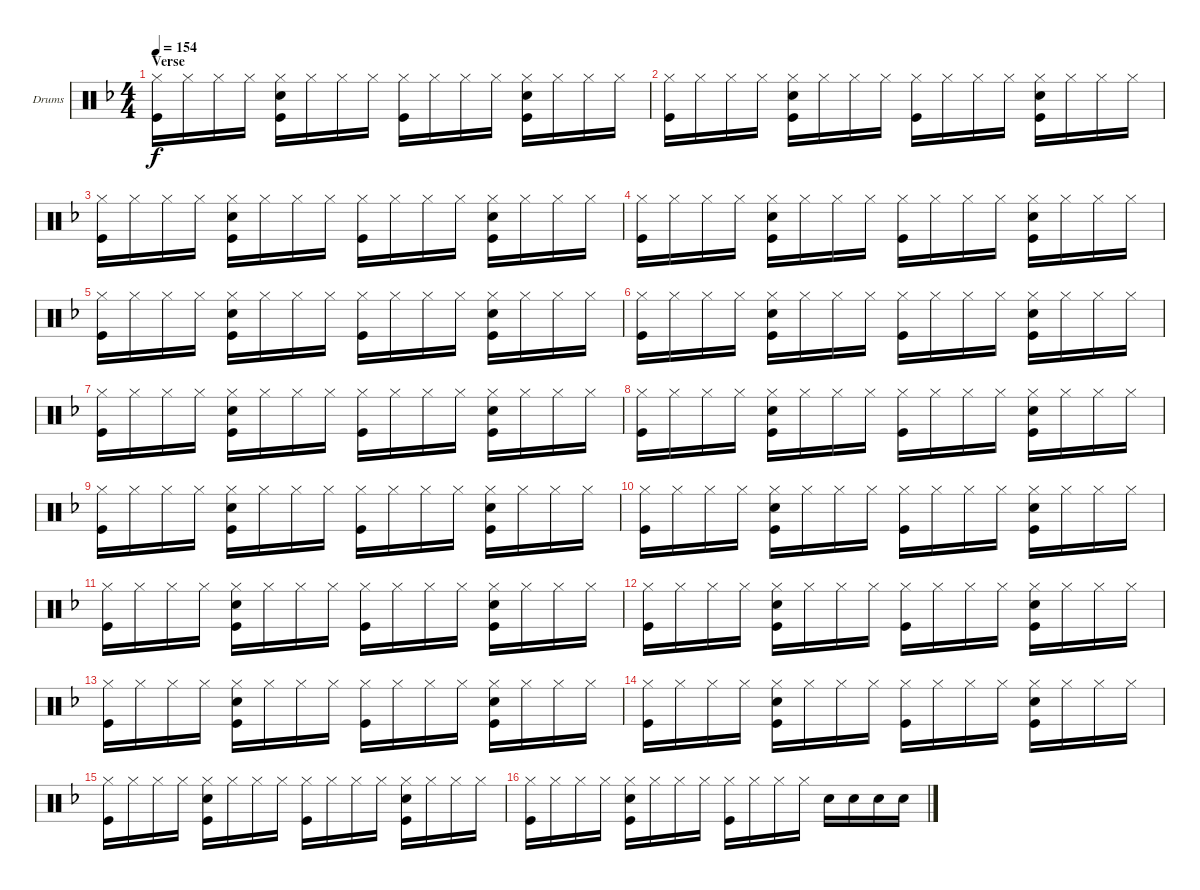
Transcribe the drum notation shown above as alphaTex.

\defaultSystemsLayout 4
\bracketExtendMode groupsimilarinstruments
\firstSystemTrackNameOrientation horizontal
\otherSystemsTrackNameOrientation horizontal
\track ("Drumkit" "Drums") {instrument percussion}
\staff {score}
\articulation defaults
\ts (4 4)
\section ("" "Verse")
\tempo 154
\clef neutral
\ks f
("Hi-Hat (closed)" "Kick (hit)").16{dy f} "Hi-Hat (closed)".16 "Hi-Hat (closed)".16 "Hi-Hat (closed)".16 ("Hi-Hat (closed)" "Snare (hit) 2" "Kick (hit)").16 "Hi-Hat (closed)".16 "Hi-Hat (closed)".16 "Hi-Hat (closed)".16 ("Hi-Hat (closed)" "Kick (hit)").16 "Hi-Hat (closed)".16 "Hi-Hat (closed)".16 "Hi-Hat (closed)".16 ("Hi-Hat (closed)" "Kick (hit)" "Snare (hit) 2").16 "Hi-Hat (closed)".16 "Hi-Hat (closed)".16 "Hi-Hat (closed)".16 |
("Hi-Hat (closed)" "Kick (hit)").16 "Hi-Hat (closed)".16 "Hi-Hat (closed)".16 "Hi-Hat (closed)".16 ("Hi-Hat (closed)" "Snare (hit) 2" "Kick (hit)").16 "Hi-Hat (closed)".16 "Hi-Hat (closed)".16 "Hi-Hat (closed)".16 ("Hi-Hat (closed)" "Kick (hit)").16 "Hi-Hat (closed)".16 "Hi-Hat (closed)".16 "Hi-Hat (closed)".16 ("Hi-Hat (closed)" "Kick (hit)" "Snare (hit) 2").16 "Hi-Hat (closed)".16 "Hi-Hat (closed)".16 "Hi-Hat (closed)".16 |
("Hi-Hat (closed)" "Kick (hit)").16 "Hi-Hat (closed)".16 "Hi-Hat (closed)".16 "Hi-Hat (closed)".16 ("Hi-Hat (closed)" "Snare (hit) 2" "Kick (hit)").16 "Hi-Hat (closed)".16 "Hi-Hat (closed)".16 "Hi-Hat (closed)".16 ("Hi-Hat (closed)" "Kick (hit)").16 "Hi-Hat (closed)".16 "Hi-Hat (closed)".16 "Hi-Hat (closed)".16 ("Hi-Hat (closed)" "Kick (hit)" "Snare (hit) 2").16 "Hi-Hat (closed)".16 "Hi-Hat (closed)".16 "Hi-Hat (closed)".16 |
("Hi-Hat (closed)" "Kick (hit)").16 "Hi-Hat (closed)".16 "Hi-Hat (closed)".16 "Hi-Hat (closed)".16 ("Hi-Hat (closed)" "Snare (hit) 2" "Kick (hit)").16 "Hi-Hat (closed)".16 "Hi-Hat (closed)".16 "Hi-Hat (closed)".16 ("Hi-Hat (closed)" "Kick (hit)").16 "Hi-Hat (closed)".16 "Hi-Hat (closed)".16 "Hi-Hat (closed)".16 ("Hi-Hat (closed)" "Kick (hit)" "Snare (hit) 2").16 "Hi-Hat (closed)".16 "Hi-Hat (closed)".16 "Hi-Hat (closed)".16 |
("Hi-Hat (closed)" "Kick (hit)").16 "Hi-Hat (closed)".16 "Hi-Hat (closed)".16 "Hi-Hat (closed)".16 ("Hi-Hat (closed)" "Snare (hit) 2" "Kick (hit)").16 "Hi-Hat (closed)".16 "Hi-Hat (closed)".16 "Hi-Hat (closed)".16 ("Hi-Hat (closed)" "Kick (hit)").16 "Hi-Hat (closed)".16 "Hi-Hat (closed)".16 "Hi-Hat (closed)".16 ("Hi-Hat (closed)" "Kick (hit)" "Snare (hit) 2").16 "Hi-Hat (closed)".16 "Hi-Hat (closed)".16 "Hi-Hat (closed)".16 |
("Hi-Hat (closed)" "Kick (hit)").16 "Hi-Hat (closed)".16 "Hi-Hat (closed)".16 "Hi-Hat (closed)".16 ("Hi-Hat (closed)" "Snare (hit) 2" "Kick (hit)").16 "Hi-Hat (closed)".16 "Hi-Hat (closed)".16 "Hi-Hat (closed)".16 ("Hi-Hat (closed)" "Kick (hit)").16 "Hi-Hat (closed)".16 "Hi-Hat (closed)".16 "Hi-Hat (closed)".16 ("Hi-Hat (closed)" "Kick (hit)" "Snare (hit) 2").16 "Hi-Hat (closed)".16 "Hi-Hat (closed)".16 "Hi-Hat (closed)".16 |
("Hi-Hat (closed)" "Kick (hit)").16 "Hi-Hat (closed)".16 "Hi-Hat (closed)".16 "Hi-Hat (closed)".16 ("Hi-Hat (closed)" "Snare (hit) 2" "Kick (hit)").16 "Hi-Hat (closed)".16 "Hi-Hat (closed)".16 "Hi-Hat (closed)".16 ("Hi-Hat (closed)" "Kick (hit)").16 "Hi-Hat (closed)".16 "Hi-Hat (closed)".16 "Hi-Hat (closed)".16 ("Hi-Hat (closed)" "Kick (hit)" "Snare (hit) 2").16 "Hi-Hat (closed)".16 "Hi-Hat (closed)".16 "Hi-Hat (closed)".16 |
("Hi-Hat (closed)" "Kick (hit)").16 "Hi-Hat (closed)".16 "Hi-Hat (closed)".16 "Hi-Hat (closed)".16 ("Hi-Hat (closed)" "Snare (hit) 2" "Kick (hit)").16 "Hi-Hat (closed)".16 "Hi-Hat (closed)".16 "Hi-Hat (closed)".16 ("Hi-Hat (closed)" "Kick (hit)").16 "Hi-Hat (closed)".16 "Hi-Hat (closed)".16 "Hi-Hat (closed)".16 ("Hi-Hat (closed)" "Kick (hit)" "Snare (hit) 2").16 "Hi-Hat (closed)".16 "Hi-Hat (closed)".16 "Hi-Hat (closed)".16 |
("Hi-Hat (closed)" "Kick (hit)").16 "Hi-Hat (closed)".16 "Hi-Hat (closed)".16 "Hi-Hat (closed)".16 ("Hi-Hat (closed)" "Snare (hit) 2" "Kick (hit)").16 "Hi-Hat (closed)".16 "Hi-Hat (closed)".16 "Hi-Hat (closed)".16 ("Hi-Hat (closed)" "Kick (hit)").16 "Hi-Hat (closed)".16 "Hi-Hat (closed)".16 "Hi-Hat (closed)".16 ("Hi-Hat (closed)" "Kick (hit)" "Snare (hit) 2").16 "Hi-Hat (closed)".16 "Hi-Hat (closed)".16 "Hi-Hat (closed)".16 |
("Hi-Hat (closed)" "Kick (hit)").16 "Hi-Hat (closed)".16 "Hi-Hat (closed)".16 "Hi-Hat (closed)".16 ("Hi-Hat (closed)" "Snare (hit) 2" "Kick (hit)").16 "Hi-Hat (closed)".16 "Hi-Hat (closed)".16 "Hi-Hat (closed)".16 ("Hi-Hat (closed)" "Kick (hit)").16 "Hi-Hat (closed)".16 "Hi-Hat (closed)".16 "Hi-Hat (closed)".16 ("Hi-Hat (closed)" "Kick (hit)" "Snare (hit) 2").16 "Hi-Hat (closed)".16 "Hi-Hat (closed)".16 "Hi-Hat (closed)".16 |
("Hi-Hat (closed)" "Kick (hit)").16 "Hi-Hat (closed)".16 "Hi-Hat (closed)".16 "Hi-Hat (closed)".16 ("Hi-Hat (closed)" "Snare (hit) 2" "Kick (hit)").16 "Hi-Hat (closed)".16 "Hi-Hat (closed)".16 "Hi-Hat (closed)".16 ("Hi-Hat (closed)" "Kick (hit)").16 "Hi-Hat (closed)".16 "Hi-Hat (closed)".16 "Hi-Hat (closed)".16 ("Hi-Hat (closed)" "Kick (hit)" "Snare (hit) 2").16 "Hi-Hat (closed)".16 "Hi-Hat (closed)".16 "Hi-Hat (closed)".16 |
("Hi-Hat (closed)" "Kick (hit)").16 "Hi-Hat (closed)".16 "Hi-Hat (closed)".16 "Hi-Hat (closed)".16 ("Hi-Hat (closed)" "Snare (hit) 2" "Kick (hit)").16 "Hi-Hat (closed)".16 "Hi-Hat (closed)".16 "Hi-Hat (closed)".16 ("Hi-Hat (closed)" "Kick (hit)").16 "Hi-Hat (closed)".16 "Hi-Hat (closed)".16 "Hi-Hat (closed)".16 ("Hi-Hat (closed)" "Kick (hit)" "Snare (hit) 2").16 "Hi-Hat (closed)".16 "Hi-Hat (closed)".16 "Hi-Hat (closed)".16 |
("Hi-Hat (closed)" "Kick (hit)").16 "Hi-Hat (closed)".16 "Hi-Hat (closed)".16 "Hi-Hat (closed)".16 ("Hi-Hat (closed)" "Snare (hit) 2" "Kick (hit)").16 "Hi-Hat (closed)".16 "Hi-Hat (closed)".16 "Hi-Hat (closed)".16 ("Hi-Hat (closed)" "Kick (hit)").16 "Hi-Hat (closed)".16 "Hi-Hat (closed)".16 "Hi-Hat (closed)".16 ("Hi-Hat (closed)" "Kick (hit)" "Snare (hit) 2").16 "Hi-Hat (closed)".16 "Hi-Hat (closed)".16 "Hi-Hat (closed)".16 |
("Hi-Hat (closed)" "Kick (hit)").16 "Hi-Hat (closed)".16 "Hi-Hat (closed)".16 "Hi-Hat (closed)".16 ("Hi-Hat (closed)" "Snare (hit) 2" "Kick (hit)").16 "Hi-Hat (closed)".16 "Hi-Hat (closed)".16 "Hi-Hat (closed)".16 ("Hi-Hat (closed)" "Kick (hit)").16 "Hi-Hat (closed)".16 "Hi-Hat (closed)".16 "Hi-Hat (closed)".16 ("Hi-Hat (closed)" "Kick (hit)" "Snare (hit) 2").16 "Hi-Hat (closed)".16 "Hi-Hat (closed)".16 "Hi-Hat (closed)".16 |
("Hi-Hat (closed)" "Kick (hit)").16 "Hi-Hat (closed)".16 "Hi-Hat (closed)".16 "Hi-Hat (closed)".16 ("Hi-Hat (closed)" "Snare (hit) 2" "Kick (hit)").16 "Hi-Hat (closed)".16 "Hi-Hat (closed)".16 "Hi-Hat (closed)".16 ("Hi-Hat (closed)" "Kick (hit)").16 "Hi-Hat (closed)".16 "Hi-Hat (closed)".16 "Hi-Hat (closed)".16 ("Hi-Hat (closed)" "Kick (hit)" "Snare (hit) 2").16 "Hi-Hat (closed)".16 "Hi-Hat (closed)".16 "Hi-Hat (closed)".16 |
("Hi-Hat (closed)" "Kick (hit)").16 "Hi-Hat (closed)".16 "Hi-Hat (closed)".16 "Hi-Hat (closed)".16 ("Hi-Hat (closed)" "Snare (hit) 2" "Kick (hit)").16 "Hi-Hat (closed)".16 "Hi-Hat (closed)".16 "Hi-Hat (closed)".16 ("Hi-Hat (closed)" "Kick (hit)").16 "Hi-Hat (closed)".16 "Hi-Hat (closed)".16 "Hi-Hat (closed)".16 "Snare (hit) 2".16 "Snare (hit) 2".16 "Snare (hit) 2".16 "Snare (hit) 2".16
